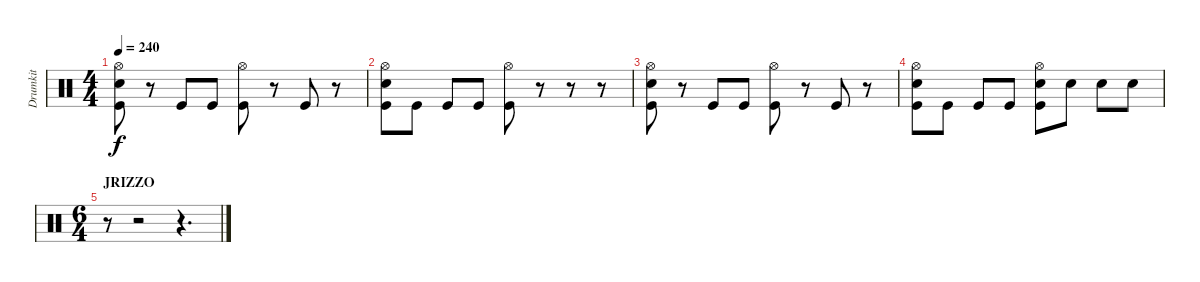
\track ("Drumkit" "Drumkit") {instrument percussion}
\staff {score}
\articulation defaults
\ts (4 4)
\tempo 240
\clef neutral
\ks c
("Hi-Hat (open)" "Snare (hit) 2" "Kick (hit)").8{dy f} r.8 "Kick (hit)".8 "Kick (hit)".8 ("Hi-Hat (open)" "Kick (hit)").8 r.8 "Kick (hit)".8 r.8 |
("Hi-Hat (open)" "Snare (hit) 2" "Kick (hit)").8 "Kick (hit)".8 "Kick (hit)".8 "Kick (hit)".8 ("Hi-Hat (open)" "Kick (hit)").8 r.8 r.8 r.8 |
("Hi-Hat (open)" "Snare (hit) 2" "Kick (hit)").8 r.8 "Kick (hit)".8 "Kick (hit)".8 ("Hi-Hat (open)" "Kick (hit)").8 r.8 "Kick (hit)".8 r.8 |
("Hi-Hat (open)" "Snare (hit) 2" "Kick (hit)").8 "Kick (hit)".8 "Kick (hit)".8 "Kick (hit)".8 ("Hi-Hat (open)" "Snare (hit) 2" "Kick (hit)").8 "Snare (hit) 2".8 "Snare (hit) 2".8 "Snare (hit) 2".8 |
\ts (6 4)
\section ("" "JRIZZO")
r.8 r.2 r.4{d}
